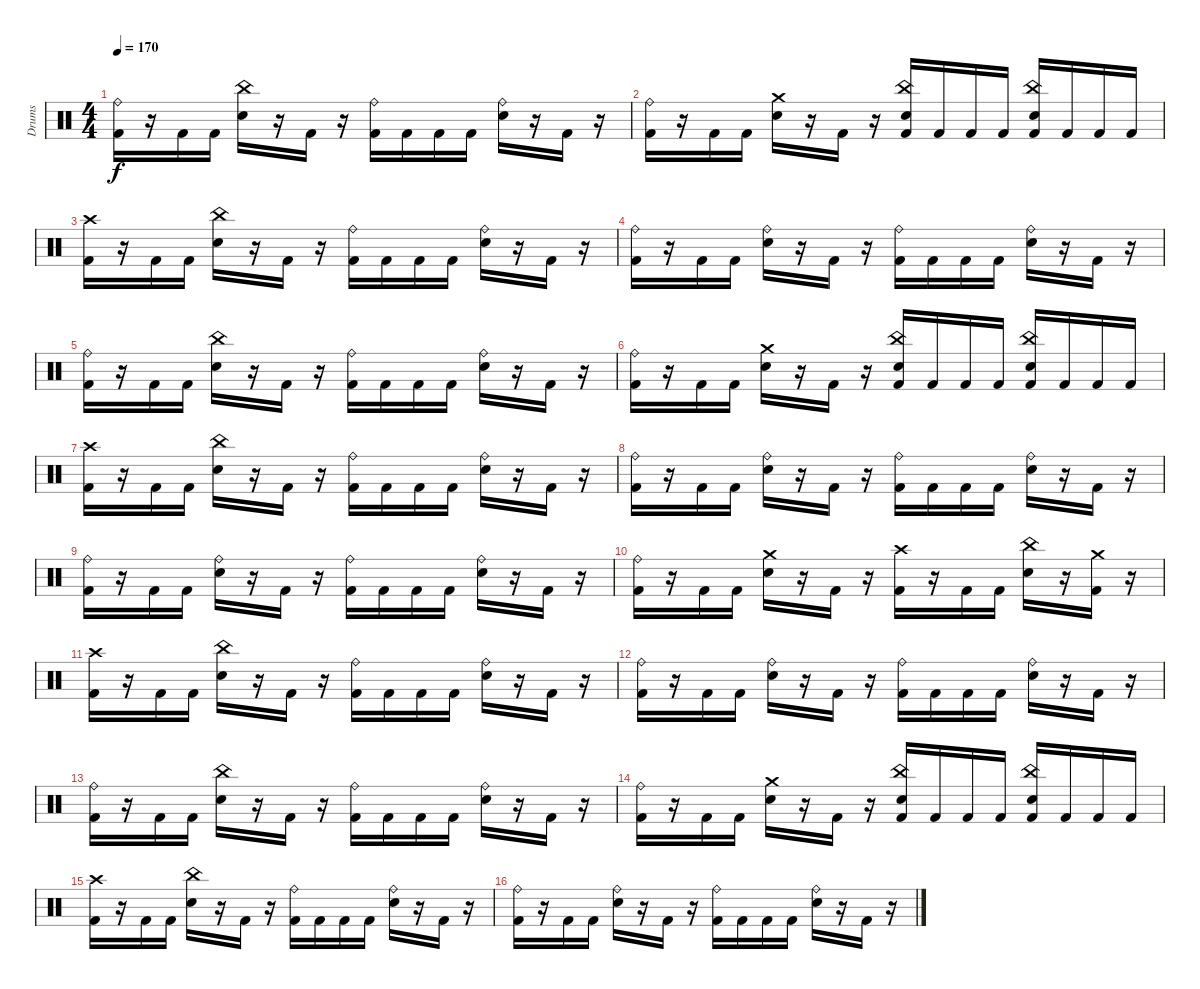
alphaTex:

\track ("Drums" "Drums") {instrument percussion}
\staff {score}
\articulation defaults
\ts (4 4)
\tempo 170
\clef neutral
\ks c
("Ride (bell)" "Kick (hit) 2").16{dy f} r.16 "Kick (hit) 2".16 "Kick (hit) 2".16 ("China (hit)" "Electric Snare (hit)").16 r.16 "Kick (hit) 2".16 r.16 ("Ride (bell)" "Kick (hit) 2").16 "Kick (hit) 2".16 "Kick (hit) 2".16 "Kick (hit) 2".16 ("Ride (bell)" "Electric Snare (hit)").16 r.16 "Kick (hit) 2".16 r.16 |
("Ride (bell)" "Kick (hit) 2").16 r.16 "Kick (hit) 2".16 "Kick (hit) 2".16 ("Crash medium (hit)" "Electric Snare (hit)").16 r.16 "Kick (hit) 2".16 r.16 ("China (hit)" "Electric Snare (hit)" "Kick (hit) 2").16 "Kick (hit) 2".16 "Kick (hit) 2".16 "Kick (hit) 2".16 ("China (hit)" "Electric Snare (hit)" "Kick (hit) 2").16 "Kick (hit) 2".16 "Kick (hit) 2".16 "Kick (hit) 2".16 |
("Crash high (hit)" "Kick (hit) 2").16 r.16 "Kick (hit) 2".16 "Kick (hit) 2".16 ("China (hit)" "Electric Snare (hit)").16 r.16 "Kick (hit) 2".16 r.16 ("Ride (bell)" "Kick (hit) 2").16 "Kick (hit) 2".16 "Kick (hit) 2".16 "Kick (hit) 2".16 ("Ride (bell)" "Electric Snare (hit)").16 r.16 "Kick (hit) 2".16 r.16 |
("Ride (bell)" "Kick (hit) 2").16 r.16 "Kick (hit) 2".16 "Kick (hit) 2".16 ("Ride (bell)" "Electric Snare (hit)").16 r.16 "Kick (hit) 2".16 r.16 ("Ride (bell)" "Kick (hit) 2").16 "Kick (hit) 2".16 "Kick (hit) 2".16 "Kick (hit) 2".16 ("Ride (bell)" "Electric Snare (hit)").16 r.16 "Kick (hit) 2".16 r.16 |
("Ride (bell)" "Kick (hit) 2").16 r.16 "Kick (hit) 2".16 "Kick (hit) 2".16 ("China (hit)" "Electric Snare (hit)").16 r.16 "Kick (hit) 2".16 r.16 ("Ride (bell)" "Kick (hit) 2").16 "Kick (hit) 2".16 "Kick (hit) 2".16 "Kick (hit) 2".16 ("Ride (bell)" "Electric Snare (hit)").16 r.16 "Kick (hit) 2".16 r.16 |
("Ride (bell)" "Kick (hit) 2").16 r.16 "Kick (hit) 2".16 "Kick (hit) 2".16 ("Crash medium (hit)" "Electric Snare (hit)").16 r.16 "Kick (hit) 2".16 r.16 ("China (hit)" "Electric Snare (hit)" "Kick (hit) 2").16 "Kick (hit) 2".16 "Kick (hit) 2".16 "Kick (hit) 2".16 ("China (hit)" "Electric Snare (hit)" "Kick (hit) 2").16 "Kick (hit) 2".16 "Kick (hit) 2".16 "Kick (hit) 2".16 |
("Crash high (hit)" "Kick (hit) 2").16 r.16 "Kick (hit) 2".16 "Kick (hit) 2".16 ("China (hit)" "Electric Snare (hit)").16 r.16 "Kick (hit) 2".16 r.16 ("Ride (bell)" "Kick (hit) 2").16 "Kick (hit) 2".16 "Kick (hit) 2".16 "Kick (hit) 2".16 ("Ride (bell)" "Electric Snare (hit)").16 r.16 "Kick (hit) 2".16 r.16 |
("Ride (bell)" "Kick (hit) 2").16 r.16 "Kick (hit) 2".16 "Kick (hit) 2".16 ("Ride (bell)" "Electric Snare (hit)").16 r.16 "Kick (hit) 2".16 r.16 ("Ride (bell)" "Kick (hit) 2").16 "Kick (hit) 2".16 "Kick (hit) 2".16 "Kick (hit) 2".16 ("Ride (bell)" "Electric Snare (hit)").16 r.16 "Kick (hit) 2".16 r.16 |
("Ride (bell)" "Kick (hit) 2").16 r.16 "Kick (hit) 2".16 "Kick (hit) 2".16 ("Ride (bell)" "Electric Snare (hit)").16 r.16 "Kick (hit) 2".16 r.16 ("Ride (bell)" "Kick (hit) 2").16 "Kick (hit) 2".16 "Kick (hit) 2".16 "Kick (hit) 2".16 ("Ride (bell)" "Electric Snare (hit)").16 r.16 "Kick (hit) 2".16 r.16 |
("Ride (bell)" "Kick (hit) 2").16 r.16 "Kick (hit) 2".16 "Kick (hit) 2".16 ("Crash medium (hit)" "Electric Snare (hit)").16 r.16 "Kick (hit) 2".16 r.16 ("Crash high (hit)" "Kick (hit) 2").16 r.16 "Kick (hit) 2".16 "Kick (hit) 2".16 ("China (hit)" "Electric Snare (hit)").16 r.16 ("Crash medium (hit)" "Kick (hit) 2").16 r.16 |
("Crash high (hit)" "Kick (hit) 2").16 r.16 "Kick (hit) 2".16 "Kick (hit) 2".16 ("China (hit)" "Electric Snare (hit)").16 r.16 "Kick (hit) 2".16 r.16 ("Ride (bell)" "Kick (hit) 2").16 "Kick (hit) 2".16 "Kick (hit) 2".16 "Kick (hit) 2".16 ("Ride (bell)" "Electric Snare (hit)").16 r.16 "Kick (hit) 2".16 r.16 |
("Ride (bell)" "Kick (hit) 2").16 r.16 "Kick (hit) 2".16 "Kick (hit) 2".16 ("Ride (bell)" "Electric Snare (hit)").16 r.16 "Kick (hit) 2".16 r.16 ("Ride (bell)" "Kick (hit) 2").16 "Kick (hit) 2".16 "Kick (hit) 2".16 "Kick (hit) 2".16 ("Ride (bell)" "Electric Snare (hit)").16 r.16 "Kick (hit) 2".16 r.16 |
("Ride (bell)" "Kick (hit) 2").16 r.16 "Kick (hit) 2".16 "Kick (hit) 2".16 ("China (hit)" "Electric Snare (hit)").16 r.16 "Kick (hit) 2".16 r.16 ("Ride (bell)" "Kick (hit) 2").16 "Kick (hit) 2".16 "Kick (hit) 2".16 "Kick (hit) 2".16 ("Ride (bell)" "Electric Snare (hit)").16 r.16 "Kick (hit) 2".16 r.16 |
("Ride (bell)" "Kick (hit) 2").16 r.16 "Kick (hit) 2".16 "Kick (hit) 2".16 ("Crash medium (hit)" "Electric Snare (hit)").16 r.16 "Kick (hit) 2".16 r.16 ("China (hit)" "Electric Snare (hit)" "Kick (hit) 2").16 "Kick (hit) 2".16 "Kick (hit) 2".16 "Kick (hit) 2".16 ("China (hit)" "Electric Snare (hit)" "Kick (hit) 2").16 "Kick (hit) 2".16 "Kick (hit) 2".16 "Kick (hit) 2".16 |
("Crash high (hit)" "Kick (hit) 2").16 r.16 "Kick (hit) 2".16 "Kick (hit) 2".16 ("China (hit)" "Electric Snare (hit)").16 r.16 "Kick (hit) 2".16 r.16 ("Ride (bell)" "Kick (hit) 2").16 "Kick (hit) 2".16 "Kick (hit) 2".16 "Kick (hit) 2".16 ("Ride (bell)" "Electric Snare (hit)").16 r.16 "Kick (hit) 2".16 r.16 |
("Ride (bell)" "Kick (hit) 2").16 r.16 "Kick (hit) 2".16 "Kick (hit) 2".16 ("Ride (bell)" "Electric Snare (hit)").16 r.16 "Kick (hit) 2".16 r.16 ("Ride (bell)" "Kick (hit) 2").16 "Kick (hit) 2".16 "Kick (hit) 2".16 "Kick (hit) 2".16 ("Ride (bell)" "Electric Snare (hit)").16 r.16 "Kick (hit) 2".16 r.16
